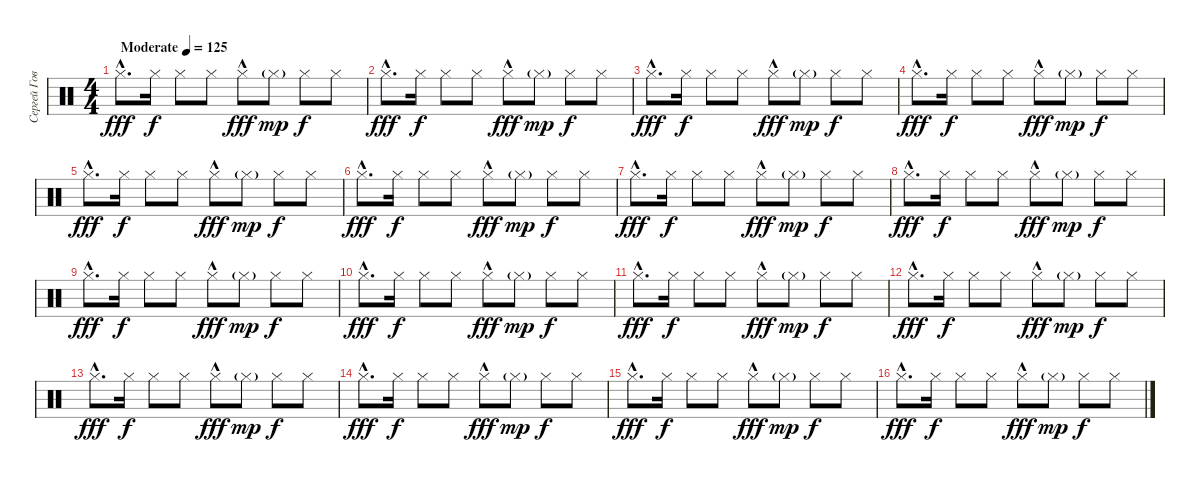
\track ("Сергей Говорун" "Сергей Гов") {instrument percussion}
\staff {score}
\articulation defaults
\ts (4 4)
\tempo (125 "Moderate")
\clef neutral
\ks c "Hi-Hat (closed)"{hac}.8{d dy fff} "Hi-Hat (closed)".16{dy f} "Hi-Hat (closed)".8 "Hi-Hat (closed)".8 "Hi-Hat (closed)"{hac}.8{dy fff} "Hi-Hat (closed)"{g}.8{dy mp} "Hi-Hat (closed)".8{dy f} "Hi-Hat (closed)".8
|
"Hi-Hat (closed)"{hac}.8{d dy fff} "Hi-Hat (closed)".16{dy f} "Hi-Hat (closed)".8 "Hi-Hat (closed)".8 "Hi-Hat (closed)"{hac}.8{dy fff} "Hi-Hat (closed)"{g}.8{dy mp} "Hi-Hat (closed)".8{dy f} "Hi-Hat (closed)".8 |
"Hi-Hat (closed)"{hac}.8{d dy fff} "Hi-Hat (closed)".16{dy f} "Hi-Hat (closed)".8 "Hi-Hat (closed)".8 "Hi-Hat (closed)"{hac}.8{dy fff} "Hi-Hat (closed)"{g}.8{dy mp} "Hi-Hat (closed)".8{dy f} "Hi-Hat (closed)".8 |
"Hi-Hat (closed)"{hac}.8{d dy fff} "Hi-Hat (closed)".16{dy f} "Hi-Hat (closed)".8 "Hi-Hat (closed)".8 "Hi-Hat (closed)"{hac}.8{dy fff} "Hi-Hat (closed)"{g}.8{dy mp} "Hi-Hat (closed)".8{dy f} "Hi-Hat (closed)".8 |
"Hi-Hat (closed)"{hac}.8{d dy fff} "Hi-Hat (closed)".16{dy f} "Hi-Hat (closed)".8 "Hi-Hat (closed)".8 "Hi-Hat (closed)"{hac}.8{dy fff} "Hi-Hat (closed)"{g}.8{dy mp} "Hi-Hat (closed)".8{dy f} "Hi-Hat (closed)".8 |
"Hi-Hat (closed)"{hac}.8{d dy fff} "Hi-Hat (closed)".16{dy f} "Hi-Hat (closed)".8 "Hi-Hat (closed)".8 "Hi-Hat (closed)"{hac}.8{dy fff} "Hi-Hat (closed)"{g}.8{dy mp} "Hi-Hat (closed)".8{dy f} "Hi-Hat (closed)".8 |
"Hi-Hat (closed)"{hac}.8{d dy fff} "Hi-Hat (closed)".16{dy f} "Hi-Hat (closed)".8 "Hi-Hat (closed)".8 "Hi-Hat (closed)"{hac}.8{dy fff} "Hi-Hat (closed)"{g}.8{dy mp} "Hi-Hat (closed)".8{dy f} "Hi-Hat (closed)".8 |
"Hi-Hat (closed)"{hac}.8{d dy fff} "Hi-Hat (closed)".16{dy f} "Hi-Hat (closed)".8 "Hi-Hat (closed)".8 "Hi-Hat (closed)"{hac}.8{dy fff} "Hi-Hat (closed)"{g}.8{dy mp} "Hi-Hat (closed)".8{dy f} "Hi-Hat (closed)".8 |
"Hi-Hat (closed)"{hac}.8{d dy fff} "Hi-Hat (closed)".16{dy f} "Hi-Hat (closed)".8 "Hi-Hat (closed)".8 "Hi-Hat (closed)"{hac}.8{dy fff} "Hi-Hat (closed)"{g}.8{dy mp} "Hi-Hat (closed)".8{dy f} "Hi-Hat (closed)".8 |
"Hi-Hat (closed)"{hac}.8{d dy fff} "Hi-Hat (closed)".16{dy f} "Hi-Hat (closed)".8 "Hi-Hat (closed)".8 "Hi-Hat (closed)"{hac}.8{dy fff} "Hi-Hat (closed)"{g}.8{dy mp} "Hi-Hat (closed)".8{dy f} "Hi-Hat (closed)".8 |
"Hi-Hat (closed)"{hac}.8{d dy fff} "Hi-Hat (closed)".16{dy f} "Hi-Hat (closed)".8 "Hi-Hat (closed)".8 "Hi-Hat (closed)"{hac}.8{dy fff} "Hi-Hat (closed)"{g}.8{dy mp} "Hi-Hat (closed)".8{dy f} "Hi-Hat (closed)".8 |
"Hi-Hat (closed)"{hac}.8{d dy fff} "Hi-Hat (closed)".16{dy f} "Hi-Hat (closed)".8 "Hi-Hat (closed)".8 "Hi-Hat (closed)"{hac}.8{dy fff} "Hi-Hat (closed)"{g}.8{dy mp} "Hi-Hat (closed)".8{dy f} "Hi-Hat (closed)".8 |
"Hi-Hat (closed)"{hac}.8{d dy fff} "Hi-Hat (closed)".16{dy f} "Hi-Hat (closed)".8 "Hi-Hat (closed)".8 "Hi-Hat (closed)"{hac}.8{dy fff} "Hi-Hat (closed)"{g}.8{dy mp} "Hi-Hat (closed)".8{dy f} "Hi-Hat (closed)".8 |
"Hi-Hat (closed)"{hac}.8{d dy fff} "Hi-Hat (closed)".16{dy f} "Hi-Hat (closed)".8 "Hi-Hat (closed)".8 "Hi-Hat (closed)"{hac}.8{dy fff} "Hi-Hat (closed)"{g}.8{dy mp} "Hi-Hat (closed)".8{dy f} "Hi-Hat (closed)".8 |
"Hi-Hat (closed)"{hac}.8{d dy fff} "Hi-Hat (closed)".16{dy f} "Hi-Hat (closed)".8 "Hi-Hat (closed)".8 "Hi-Hat (closed)"{hac}.8{dy fff} "Hi-Hat (closed)"{g}.8{dy mp} "Hi-Hat (closed)".8{dy f} "Hi-Hat (closed)".8 |
"Hi-Hat (closed)"{hac}.8{d dy fff} "Hi-Hat (closed)".16{dy f} "Hi-Hat (closed)".8 "Hi-Hat (closed)".8 "Hi-Hat (closed)"{hac}.8{dy fff} "Hi-Hat (closed)"{g}.8{dy mp} "Hi-Hat (closed)".8{dy f} "Hi-Hat (closed)".8
